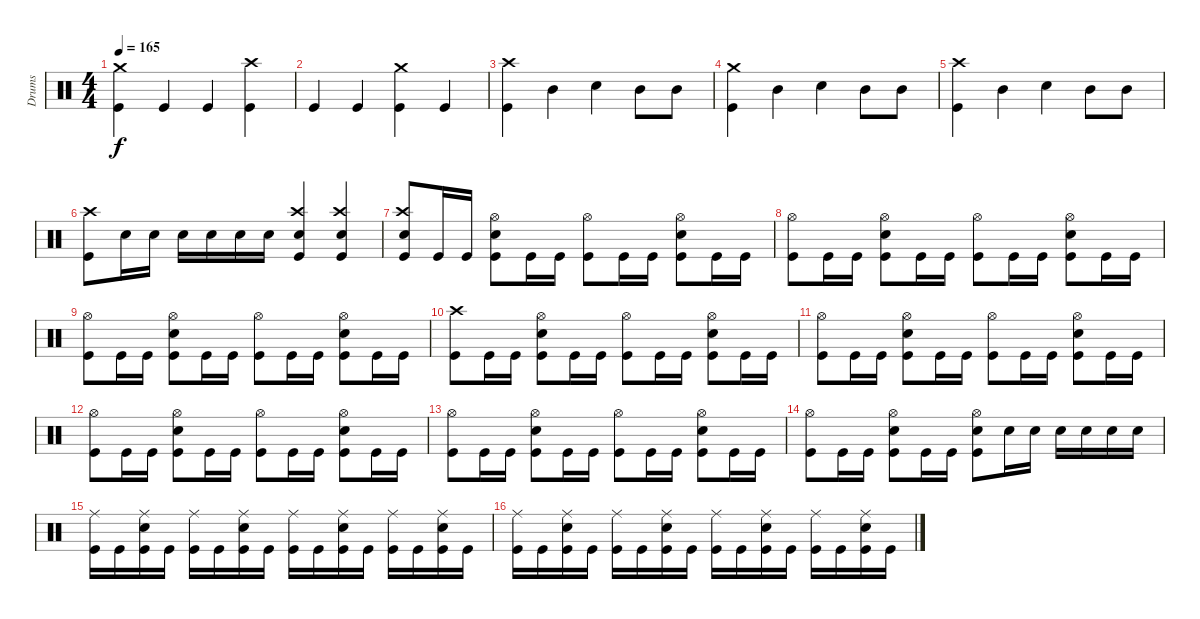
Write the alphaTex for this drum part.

\track ("Drums" "Drums") {instrument percussion}
\staff {score}
\articulation defaults
\ts (4 4)
\tempo 165
\clef neutral
\ks c
("Crash medium (hit)" "Kick (hit)").4{dy f} "Kick (hit)".4 "Kick (hit)".4 ("Kick (hit)" "Crash high (hit)").4 |
"Kick (hit)".4 "Kick (hit)".4 ("Kick (hit)" "Crash medium (hit)").4 "Kick (hit)".4 |
("Kick (hit)" "Crash high (hit)").4 "Mid Tom (hit)".4 "Snare (hit) 2".4 "Mid Tom (hit)".8 "Mid Tom (hit)".8 |
("Kick (hit)" "Crash medium (hit)").4 "Mid Tom (hit)".4 "Snare (hit) 2".4 "Mid Tom (hit)".8 "Mid Tom (hit)".8 |
("Kick (hit)" "Crash high (hit)").4 "Mid Tom (hit)".4 "Snare (hit) 2".4 "Mid Tom (hit)".8 "Mid Tom (hit)".8 |
("Kick (hit)" "Crash high (hit)").8 "Snare (hit) 2".16 "Snare (hit) 2".16 "Snare (hit) 2".16 "Snare (hit) 2".16 "Snare (hit) 2".16 "Snare (hit) 2".16 ("Kick (hit)" "Snare (hit) 2" "Crash high (hit)").4 ("Kick (hit)" "Snare (hit) 2" "Crash high (hit)").4 |
("Kick (hit)" "Snare (hit) 2" "Crash high (hit)").8 "Kick (hit)".16 "Kick (hit)".16 ("Kick (hit)" "Snare (hit) 2" "Hi-Hat (open)").8 "Kick (hit)".16 "Kick (hit)".16 ("Kick (hit)" "Hi-Hat (open)").8 "Kick (hit)".16 "Kick (hit)".16 ("Snare (hit) 2" "Kick (hit)" "Hi-Hat (open)").8 "Kick (hit)".16 "Kick (hit)".16 |
("Kick (hit)" "Hi-Hat (open)").8 "Kick (hit)".16 "Kick (hit)".16 ("Kick (hit)" "Snare (hit) 2" "Hi-Hat (open)").8 "Kick (hit)".16 "Kick (hit)".16 ("Kick (hit)" "Hi-Hat (open)").8 "Kick (hit)".16 "Kick (hit)".16 ("Snare (hit) 2" "Kick (hit)" "Hi-Hat (open)").8 "Kick (hit)".16 "Kick (hit)".16 |
("Kick (hit)" "Hi-Hat (open)").8 "Kick (hit)".16 "Kick (hit)".16 ("Kick (hit)" "Snare (hit) 2" "Hi-Hat (open)").8 "Kick (hit)".16 "Kick (hit)".16 ("Kick (hit)" "Hi-Hat (open)").8 "Kick (hit)".16 "Kick (hit)".16 ("Snare (hit) 2" "Kick (hit)" "Hi-Hat (open)").8 "Kick (hit)".16 "Kick (hit)".16 |
("Kick (hit)" "Crash high (hit)").8 "Kick (hit)".16 "Kick (hit)".16 ("Kick (hit)" "Snare (hit) 2" "Hi-Hat (open)").8 "Kick (hit)".16 "Kick (hit)".16 ("Kick (hit)" "Hi-Hat (open)").8 "Kick (hit)".16 "Kick (hit)".16 ("Snare (hit) 2" "Kick (hit)" "Hi-Hat (open)").8 "Kick (hit)".16 "Kick (hit)".16 |
("Kick (hit)" "Hi-Hat (open)").8 "Kick (hit)".16 "Kick (hit)".16 ("Kick (hit)" "Snare (hit) 2" "Hi-Hat (open)").8 "Kick (hit)".16 "Kick (hit)".16 ("Kick (hit)" "Hi-Hat (open)").8 "Kick (hit)".16 "Kick (hit)".16 ("Snare (hit) 2" "Kick (hit)" "Hi-Hat (open)").8 "Kick (hit)".16 "Kick (hit)".16 |
("Kick (hit)" "Hi-Hat (open)").8 "Kick (hit)".16 "Kick (hit)".16 ("Kick (hit)" "Snare (hit) 2" "Hi-Hat (open)").8 "Kick (hit)".16 "Kick (hit)".16 ("Kick (hit)" "Hi-Hat (open)").8 "Kick (hit)".16 "Kick (hit)".16 ("Snare (hit) 2" "Kick (hit)" "Hi-Hat (open)").8 "Kick (hit)".16 "Kick (hit)".16 |
("Kick (hit)" "Hi-Hat (open)").8 "Kick (hit)".16 "Kick (hit)".16 ("Kick (hit)" "Snare (hit) 2" "Hi-Hat (open)").8 "Kick (hit)".16 "Kick (hit)".16 ("Kick (hit)" "Hi-Hat (open)").8 "Kick (hit)".16 "Kick (hit)".16 ("Snare (hit) 2" "Kick (hit)" "Hi-Hat (open)").8 "Kick (hit)".16 "Kick (hit)".16 |
("Kick (hit)" "Hi-Hat (open)").8 "Kick (hit)".16 "Kick (hit)".16 ("Kick (hit)" "Snare (hit) 2" "Hi-Hat (open)").8 "Kick (hit)".16 "Kick (hit)".16 ("Snare (hit) 2" "Kick (hit)" "Hi-Hat (open)").8 "Snare (hit) 2".16 "Snare (hit) 2".16 "Snare (hit) 2".16 "Snare (hit) 2".16 "Snare (hit) 2".16 "Snare (hit) 2".16 |
("Kick (hit)" "Ride (middle)").16 "Kick (hit)".16 ("Kick (hit)" "Snare (hit) 2" "Ride (middle)").16 "Kick (hit)".16 ("Kick (hit)" "Ride (middle)").16 "Kick (hit)".16 ("Kick (hit)" "Snare (hit) 2" "Ride (middle)").16 "Kick (hit)".16 ("Kick (hit)" "Ride (middle)").16 "Kick (hit)".16 ("Kick (hit)" "Snare (hit) 2" "Ride (middle)").16 "Kick (hit)".16 ("Kick (hit)" "Ride (middle)").16 "Kick (hit)".16 ("Kick (hit)" "Snare (hit) 2" "Ride (middle)").16 "Kick (hit)".16 |
("Kick (hit)" "Ride (middle)").16 "Kick (hit)".16 ("Kick (hit)" "Snare (hit) 2" "Ride (middle)").16 "Kick (hit)".16 ("Kick (hit)" "Ride (middle)").16 "Kick (hit)".16 ("Kick (hit)" "Snare (hit) 2" "Ride (middle)").16 "Kick (hit)".16 ("Kick (hit)" "Ride (middle)").16 "Kick (hit)".16 ("Kick (hit)" "Snare (hit) 2" "Ride (middle)").16 "Kick (hit)".16 ("Kick (hit)" "Ride (middle)").16 "Kick (hit)".16 ("Kick (hit)" "Snare (hit) 2" "Ride (middle)").16 "Kick (hit)".16
